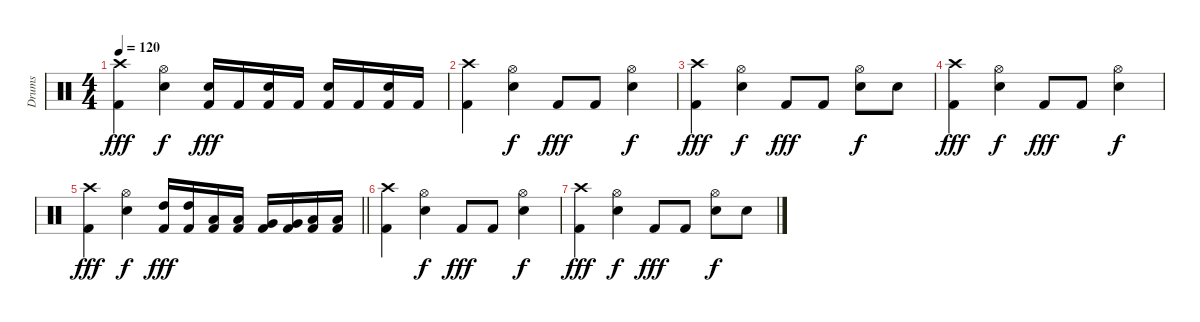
\track ("Drums" "Drums") {instrument percussion}
\staff {score}
\articulation defaults
\ts (4 4)
\tempo 120
\clef neutral
\ks c
("Crash high (hit)" "Kick (hit) 2").4{dy fff} ("Hi-Hat (open)" "Snare (hit) 2").4{dy f} ("Snare (hit) 2" "Kick (hit) 2").16{dy fff} "Kick (hit) 2".16 ("Snare (hit) 2" "Kick (hit) 2").16 "Kick (hit) 2".16 ("Snare (hit) 2" "Kick (hit) 2").16 "Kick (hit) 2".16 ("Snare (hit) 2" "Kick (hit) 2").16 "Kick (hit) 2".16 |
("Crash high (hit)" "Kick (hit) 2").4{volume 2} ("Hi-Hat (open)" "Snare (hit) 2").4{dy f} "Kick (hit) 2".8{dy fff} "Kick (hit) 2".8 ("Hi-Hat (open)" "Snare (hit) 2").4{dy f} |
("Crash high (hit)" "Kick (hit) 2").4{dy fff} ("Hi-Hat (open)" "Snare (hit) 2").4{dy f} "Kick (hit) 2".8{dy fff} "Kick (hit) 2".8 ("Hi-Hat (open)" "Snare (hit) 2").8{dy f} "Snare (hit) 2".8 |
("Crash high (hit)" "Kick (hit) 2").4{dy fff} ("Hi-Hat (open)" "Snare (hit) 2").4{dy f} "Kick (hit) 2".8{dy fff} "Kick (hit) 2".8 ("Hi-Hat (open)" "Snare (hit) 2").4{dy f} |
\barLineRight lightlight
("Crash high (hit)" "Kick (hit) 2").4{dy fff} ("Hi-Hat (open)" "Snare (hit) 2").4{dy f} ("High Tom (hit)" "Kick (hit) 2").16{dy fff} ("High Tom (hit)" "Kick (hit) 2").16 ("Low Tom (hit)" "Kick (hit) 2").16 ("Low Tom (hit)" "Kick (hit) 2").16 ("Very Low Tom (hit)" "Kick (hit) 2").16 ("Very Low Tom (hit)" "Kick (hit) 2").16 ("Low Floor Tom (hit)" "Kick (hit) 2").16 ("Low Floor Tom (hit)" "Kick (hit) 2").16 |
("Crash high (hit)" "Kick (hit) 2").4{volume 0} ("Hi-Hat (open)" "Snare (hit) 2").4{dy f} "Kick (hit) 2".8{dy fff} "Kick (hit) 2".8 ("Hi-Hat (open)" "Snare (hit) 2").4{dy f} |
("Crash high (hit)" "Kick (hit) 2").4{dy fff} ("Hi-Hat (open)" "Snare (hit) 2").4{dy f} "Kick (hit) 2".8{dy fff} "Kick (hit) 2".8 ("Hi-Hat (open)" "Snare (hit) 2").8{dy f} "Snare (hit) 2".8
